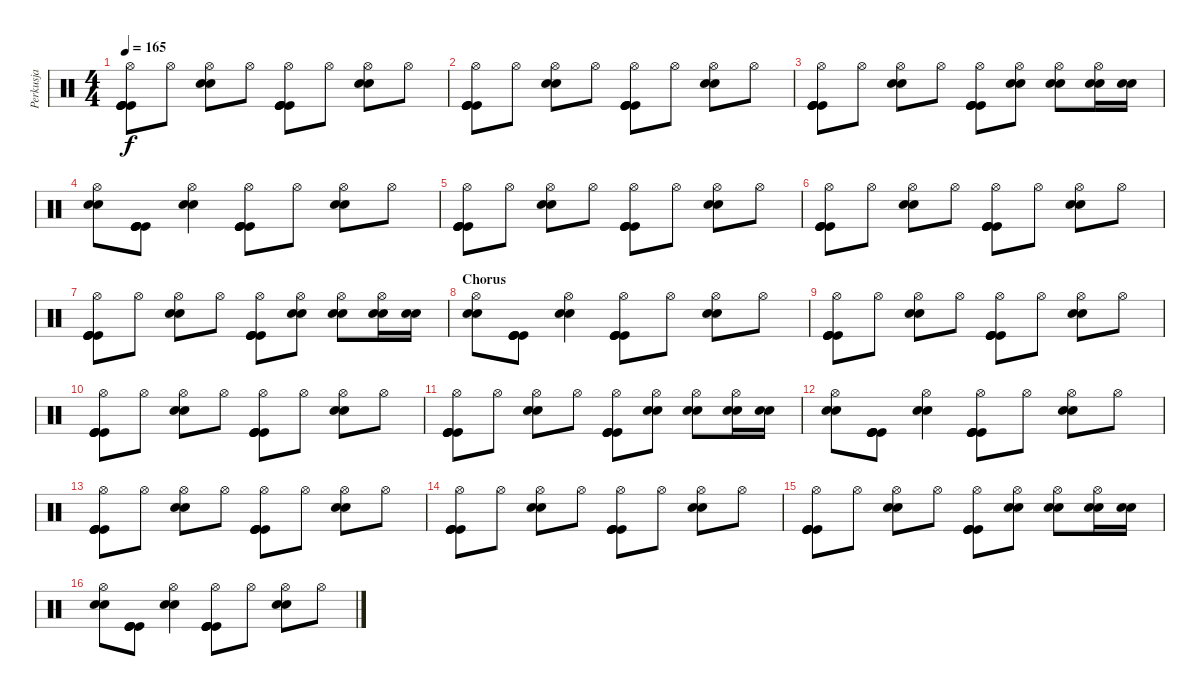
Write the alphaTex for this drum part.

\track ("Perkusja" "Perkusja") {instrument percussion}
\staff {score}
\articulation defaults
\ts (4 4)
\tempo 165
\clef neutral
\ks c
("Hi-Hat (open)" "Kick (hit)" "Kick (hit)" "Kick (hit)" "Kick (hit)").8{dy f} "Hi-Hat (open)".8 ("Hi-Hat (open)" "Snare (hit) 2" "Snare (hit) 2").8 "Hi-Hat (open)".8 ("Hi-Hat (open)" "Kick (hit)" "Kick (hit)" "Kick (hit)" "Kick (hit)").8 "Hi-Hat (open)".8 ("Hi-Hat (open)" "Snare (hit) 2" "Snare (hit) 2").8 "Hi-Hat (open)".8 |
("Hi-Hat (open)" "Kick (hit)" "Kick (hit)" "Kick (hit)" "Kick (hit)").8 "Hi-Hat (open)".8 ("Hi-Hat (open)" "Snare (hit) 2" "Snare (hit) 2").8 "Hi-Hat (open)".8 ("Hi-Hat (open)" "Kick (hit)" "Kick (hit)" "Kick (hit)" "Kick (hit)").8 "Hi-Hat (open)".8 ("Hi-Hat (open)" "Snare (hit) 2" "Snare (hit) 2").8 "Hi-Hat (open)".8 |
("Hi-Hat (open)" "Kick (hit)" "Kick (hit)" "Kick (hit)" "Kick (hit)").8 "Hi-Hat (open)".8 ("Hi-Hat (open)" "Snare (hit) 2" "Snare (hit) 2").8 "Hi-Hat (open)".8 ("Hi-Hat (open)" "Kick (hit)" "Kick (hit)" "Kick (hit)" "Kick (hit)").8 ("Hi-Hat (open)" "Snare (hit) 2" "Snare (hit) 2").8 ("Hi-Hat (open)" "Snare (hit) 2" "Snare (hit) 2").8 ("Hi-Hat (open)" "Snare (hit) 2" "Snare (hit) 2").16 ("Snare (hit) 2" "Snare (hit) 2").16 |
("Hi-Hat (open)" "Snare (hit) 2" "Snare (hit) 2").8 ("Kick (hit)" "Kick (hit)" "Kick (hit)" "Kick (hit)").8 ("Hi-Hat (open)" "Snare (hit) 2" "Snare (hit) 2").4 ("Hi-Hat (open)" "Kick (hit)" "Kick (hit)" "Kick (hit)" "Kick (hit)").8 "Hi-Hat (open)".8 ("Hi-Hat (open)" "Snare (hit) 2" "Snare (hit) 2").8 "Hi-Hat (open)".8 |
("Hi-Hat (open)" "Kick (hit)" "Kick (hit)" "Kick (hit)" "Kick (hit)").8 "Hi-Hat (open)".8 ("Hi-Hat (open)" "Snare (hit) 2" "Snare (hit) 2").8 "Hi-Hat (open)".8 ("Hi-Hat (open)" "Kick (hit)" "Kick (hit)" "Kick (hit)" "Kick (hit)").8 "Hi-Hat (open)".8 ("Hi-Hat (open)" "Snare (hit) 2" "Snare (hit) 2").8 "Hi-Hat (open)".8 |
("Hi-Hat (open)" "Kick (hit)" "Kick (hit)" "Kick (hit)" "Kick (hit)").8 "Hi-Hat (open)".8 ("Hi-Hat (open)" "Snare (hit) 2" "Snare (hit) 2").8 "Hi-Hat (open)".8 ("Hi-Hat (open)" "Kick (hit)" "Kick (hit)" "Kick (hit)" "Kick (hit)").8 "Hi-Hat (open)".8 ("Hi-Hat (open)" "Snare (hit) 2" "Snare (hit) 2").8 "Hi-Hat (open)".8 |
("Hi-Hat (open)" "Kick (hit)" "Kick (hit)" "Kick (hit)" "Kick (hit)").8 "Hi-Hat (open)".8 ("Hi-Hat (open)" "Snare (hit) 2" "Snare (hit) 2").8 "Hi-Hat (open)".8 ("Hi-Hat (open)" "Kick (hit)" "Kick (hit)" "Kick (hit)" "Kick (hit)").8 ("Hi-Hat (open)" "Snare (hit) 2" "Snare (hit) 2").8 ("Hi-Hat (open)" "Snare (hit) 2" "Snare (hit) 2").8 ("Hi-Hat (open)" "Snare (hit) 2" "Snare (hit) 2").16 ("Snare (hit) 2" "Snare (hit) 2").16 |
\section ("" "Chorus")
("Hi-Hat (open)" "Snare (hit) 2" "Snare (hit) 2").8 ("Kick (hit)" "Kick (hit)" "Kick (hit)" "Kick (hit)").8 ("Hi-Hat (open)" "Snare (hit) 2" "Snare (hit) 2").4 ("Hi-Hat (open)" "Kick (hit)" "Kick (hit)" "Kick (hit)" "Kick (hit)").8 "Hi-Hat (open)".8 ("Hi-Hat (open)" "Snare (hit) 2" "Snare (hit) 2").8 "Hi-Hat (open)".8 |
("Hi-Hat (open)" "Kick (hit)" "Kick (hit)" "Kick (hit)" "Kick (hit)").8 "Hi-Hat (open)".8 ("Hi-Hat (open)" "Snare (hit) 2" "Snare (hit) 2").8 "Hi-Hat (open)".8 ("Hi-Hat (open)" "Kick (hit)" "Kick (hit)" "Kick (hit)" "Kick (hit)").8 "Hi-Hat (open)".8 ("Hi-Hat (open)" "Snare (hit) 2" "Snare (hit) 2").8 "Hi-Hat (open)".8 |
("Hi-Hat (open)" "Kick (hit)" "Kick (hit)" "Kick (hit)" "Kick (hit)").8 "Hi-Hat (open)".8 ("Hi-Hat (open)" "Snare (hit) 2" "Snare (hit) 2").8 "Hi-Hat (open)".8 ("Hi-Hat (open)" "Kick (hit)" "Kick (hit)" "Kick (hit)" "Kick (hit)").8 "Hi-Hat (open)".8 ("Hi-Hat (open)" "Snare (hit) 2" "Snare (hit) 2").8 "Hi-Hat (open)".8 |
("Hi-Hat (open)" "Kick (hit)" "Kick (hit)" "Kick (hit)" "Kick (hit)").8 "Hi-Hat (open)".8 ("Hi-Hat (open)" "Snare (hit) 2" "Snare (hit) 2").8 "Hi-Hat (open)".8 ("Hi-Hat (open)" "Kick (hit)" "Kick (hit)" "Kick (hit)" "Kick (hit)").8 ("Hi-Hat (open)" "Snare (hit) 2" "Snare (hit) 2").8 ("Hi-Hat (open)" "Snare (hit) 2" "Snare (hit) 2").8 ("Hi-Hat (open)" "Snare (hit) 2" "Snare (hit) 2").16 ("Snare (hit) 2" "Snare (hit) 2").16 |
("Hi-Hat (open)" "Snare (hit) 2" "Snare (hit) 2").8 ("Kick (hit)" "Kick (hit)" "Kick (hit)" "Kick (hit)").8 ("Hi-Hat (open)" "Snare (hit) 2" "Snare (hit) 2").4 ("Hi-Hat (open)" "Kick (hit)" "Kick (hit)" "Kick (hit)" "Kick (hit)").8 "Hi-Hat (open)".8 ("Hi-Hat (open)" "Snare (hit) 2" "Snare (hit) 2").8 "Hi-Hat (open)".8 |
("Hi-Hat (open)" "Kick (hit)" "Kick (hit)" "Kick (hit)" "Kick (hit)").8 "Hi-Hat (open)".8 ("Hi-Hat (open)" "Snare (hit) 2" "Snare (hit) 2").8 "Hi-Hat (open)".8 ("Hi-Hat (open)" "Kick (hit)" "Kick (hit)" "Kick (hit)" "Kick (hit)").8 "Hi-Hat (open)".8 ("Hi-Hat (open)" "Snare (hit) 2" "Snare (hit) 2").8 "Hi-Hat (open)".8 |
("Hi-Hat (open)" "Kick (hit)" "Kick (hit)" "Kick (hit)" "Kick (hit)").8 "Hi-Hat (open)".8 ("Hi-Hat (open)" "Snare (hit) 2" "Snare (hit) 2").8 "Hi-Hat (open)".8 ("Hi-Hat (open)" "Kick (hit)" "Kick (hit)" "Kick (hit)" "Kick (hit)").8 "Hi-Hat (open)".8 ("Hi-Hat (open)" "Snare (hit) 2" "Snare (hit) 2").8 "Hi-Hat (open)".8 |
("Hi-Hat (open)" "Kick (hit)" "Kick (hit)" "Kick (hit)" "Kick (hit)").8 "Hi-Hat (open)".8 ("Hi-Hat (open)" "Snare (hit) 2" "Snare (hit) 2").8 "Hi-Hat (open)".8 ("Hi-Hat (open)" "Kick (hit)" "Kick (hit)" "Kick (hit)" "Kick (hit)").8 ("Hi-Hat (open)" "Snare (hit) 2" "Snare (hit) 2").8 ("Hi-Hat (open)" "Snare (hit) 2" "Snare (hit) 2").8 ("Hi-Hat (open)" "Snare (hit) 2" "Snare (hit) 2").16 ("Snare (hit) 2" "Snare (hit) 2").16 |
("Hi-Hat (open)" "Snare (hit) 2" "Snare (hit) 2").8 ("Kick (hit)" "Kick (hit)" "Kick (hit)" "Kick (hit)").8 ("Hi-Hat (open)" "Snare (hit) 2" "Snare (hit) 2").4 ("Hi-Hat (open)" "Kick (hit)" "Kick (hit)" "Kick (hit)" "Kick (hit)").8 "Hi-Hat (open)".8 ("Hi-Hat (open)" "Snare (hit) 2" "Snare (hit) 2").8 "Hi-Hat (open)".8
